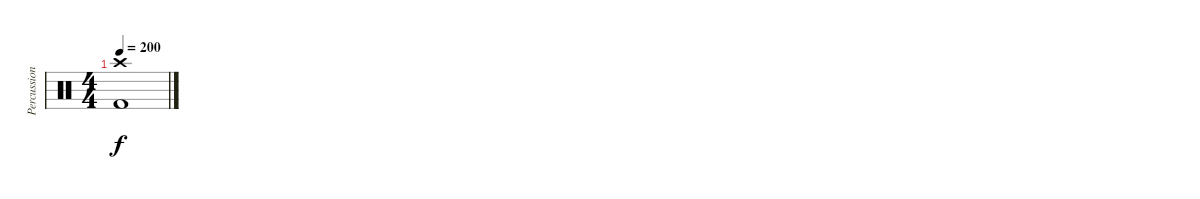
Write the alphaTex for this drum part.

\track ("Percussion" "Percussion") {instrument percussion}
\staff {score}
\articulation defaults
\ts (4 4)
\tempo 200
\clef neutral
\ks c
("Crash high (hit)" "Kick (hit) 2").1{dy f}
